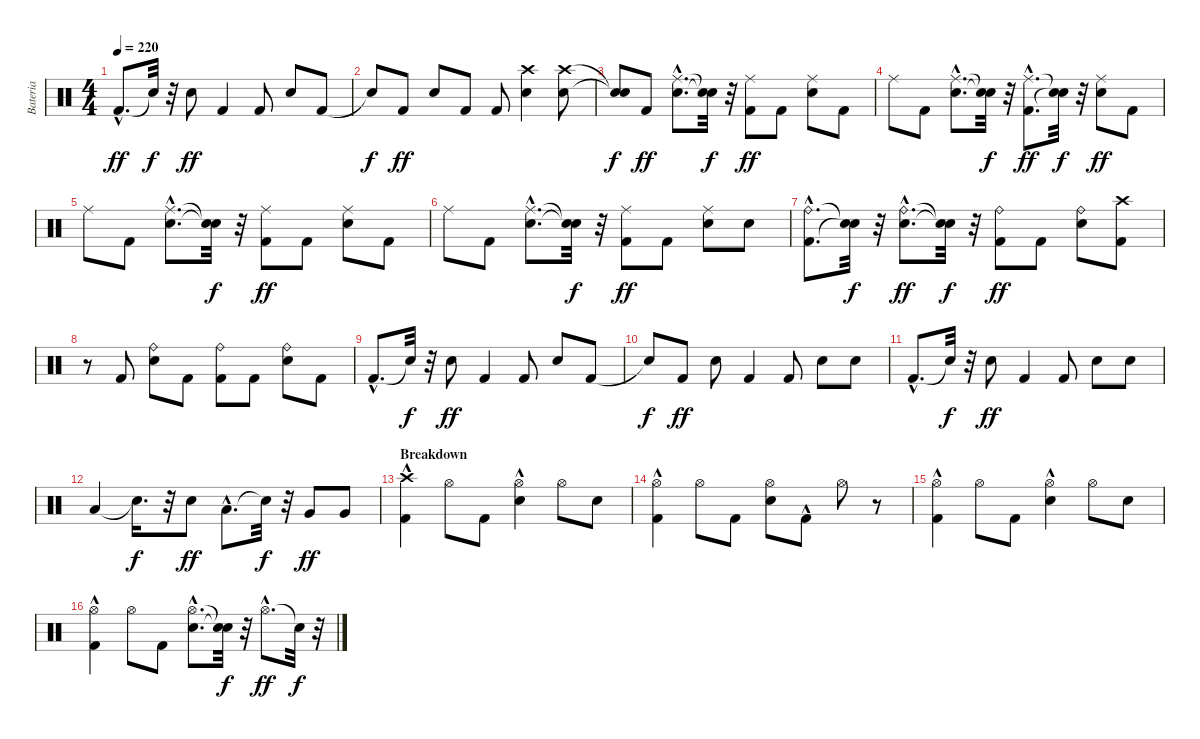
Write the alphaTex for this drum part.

\track ("Bateria" "Bateria") {instrument percussion}
\staff {score}
\articulation defaults
\ts (4 4)
\tempo 220
\clef neutral
\ks c "Kick (hit) 2"{hac}.8{d dy ff} "Snare (hit)"{t}.32{dy f}
r.32 "Electric Snare (hit)".8{dy ff} "Kick (hit) 2".4 "Kick (hit) 2".8 "Electric Snare (hit)".8 "Kick (hit) 2".8 |
"Snare (hit)"{t}.8{dy f} "Kick (hit) 2".8{dy ff} "Electric Snare (hit)".8 "Kick (hit) 2".8 "Kick (hit) 2".8 ("Electric Snare (hit)" "Crash high (hit)").4 ("Electric Snare (hit)" "Crash high (hit)").8 |
("Snare (hit)"{t} "Snare (hit)"{t}).8{dy f} "Kick (hit) 2".8{dy ff} ("Electric Snare (hit)"{hac} "Ride (middle)"{hac}).8{d} ("Snare (hit)"{t} "Snare (hit)"{t}).32{dy f} r.32 ("Kick (hit) 2" "Ride (middle)").8{dy ff} "Kick (hit) 2".8 ("Electric Snare (hit)" "Ride (middle)").8 "Kick (hit) 2".8 |
"Ride (middle)".8 "Kick (hit) 2".8 ("Electric Snare (hit)"{hac} "Ride (middle)"{hac}).8{d} ("Snare (hit)"{t} "Snare (hit)"{t}).32{dy f} r.32 ("Kick (hit) 2"{hac} "Ride (middle)"{hac}).8{d dy ff} ("Snare (hit)"{t} "Snare (hit)"{t}).32{dy f} r.32 ("Electric Snare (hit)" "Ride (middle)").8{dy ff} "Kick (hit) 2".8 |
"Ride (middle)".8 "Kick (hit) 2".8 ("Electric Snare (hit)"{hac} "Ride (middle)"{hac}).8{d} ("Snare (hit)"{t} "Snare (hit)"{t}).32{dy f} r.32 ("Kick (hit) 2" "Ride (middle)").8{dy ff} "Kick (hit) 2".8 ("Electric Snare (hit)" "Ride (middle)").8 "Kick (hit) 2".8 |
"Ride (middle)".8 "Kick (hit) 2".8 ("Electric Snare (hit)"{hac} "Ride (middle)"{hac}).8{d} ("Snare (hit)"{t} "Snare (hit)"{t}).32{dy f} r.32 ("Kick (hit) 2" "Ride (middle)").8{dy ff} "Kick (hit) 2".8 ("Electric Snare (hit)" "Ride (middle)").8 "Electric Snare (hit)".8 |
("Kick (hit) 2"{hac} "Ride (bell)"{hac}).8{d} ("Snare (hit)"{t} "Snare (hit)"{t}).32{dy f} r.32 ("Electric Snare (hit)"{hac} "Ride (bell)"{hac}).8{d dy ff} ("Snare (hit)"{t} "Snare (hit)"{t}).32{dy f} r.32 ("Kick (hit) 2" "Ride (bell)").8{dy ff} "Kick (hit) 2".8 ("Electric Snare (hit)" "Ride (bell)").8 ("Kick (hit) 2" "Crash high (hit)").8 |
r.8 "Kick (hit) 2".8 ("Electric Snare (hit)" "Ride (bell)").8 "Kick (hit) 2".8 ("Kick (hit) 2" "Ride (bell)").8 "Kick (hit) 2".8 ("Electric Snare (hit)" "Ride (bell)").8 "Kick (hit) 2".8 |
"Kick (hit) 2"{hac}.8{d} "Snare (hit)"{t}.32{dy f} r.32 "Electric Snare (hit)".8{dy ff} "Kick (hit) 2".4 "Kick (hit) 2".8 "Electric Snare (hit)".8 "Kick (hit) 2".8 |
"Snare (hit)"{t}.8{dy f} "Kick (hit) 2".8{dy ff} "Electric Snare (hit)".8 "Kick (hit) 2".4 "Kick (hit) 2".8 "Electric Snare (hit)".8 "Electric Snare (hit)".8 |
"Kick (hit) 2"{hac}.8{d} "Snare (hit)"{t}.32{dy f} r.32 "Electric Snare (hit)".8{dy ff} "Kick (hit) 2".4 "Kick (hit) 2".8 "Electric Snare (hit)".8 "Electric Snare (hit)".8 |
"Low Tom (hit)".4 "Snare (hit)"{t}.16{d dy f} r.32 "Electric Snare (hit)".8{dy ff} "Low Tom (hit)"{hac}.8{d} "Snare (hit)"{t}.32{dy f} r.32 "Very Low Tom (hit)".8{dy ff} "Very Low Tom (hit)".8 |
\section ("" "Breakdown")
("Kick (hit) 2" "Crash high (hit)"{hac}).4 "Hi-Hat (open)".8 "Kick (hit) 2".8 ("Electric Snare (hit)"{hac} "Hi-Hat (open)"{hac}).4 "Hi-Hat (open)".8 "Electric Snare (hit)".8 |
("Kick (hit) 2"{hac} "Hi-Hat (open)"{hac}).4 "Hi-Hat (open)".8 "Kick (hit) 2".8 ("Electric Snare (hit)" "Hi-Hat (open)").8 "Kick (hit) 2"{hac}.8 "Hi-Hat (open)".8 r.8 |
("Kick (hit) 2"{hac} "Hi-Hat (open)"{hac}).4 "Hi-Hat (open)".8 "Kick (hit) 2".8 ("Electric Snare (hit)"{hac} "Hi-Hat (open)"{hac}).4 "Hi-Hat (open)".8 "Electric Snare (hit)".8 |
("Kick (hit) 2"{hac} "Hi-Hat (open)"{hac}).4 "Hi-Hat (open)".8 "Kick (hit) 2".8 ("Electric Snare (hit)"{hac} "Hi-Hat (open)"{hac}).8{d} ("Snare (hit)"{t} "Snare (hit)"{t}).32{dy f} r.32 "Hi-Hat (open)"{hac}.8{d dy ff} "Snare (hit)"{t}.32{dy f} r.32
